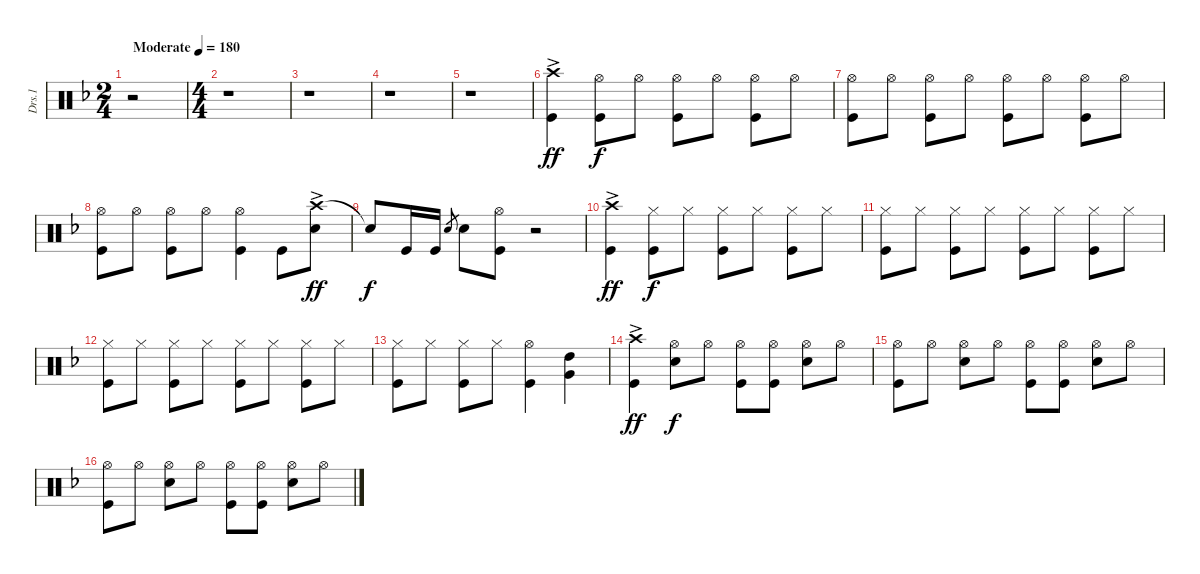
\track ("Drs.1" "Drs.1") {instrument percussion}
\staff {score}
\articulation defaults
\ts (2 4)
\tempo (180 "Moderate")
\clef neutral
\ks f
r.2{dy ff} |
\ts (4 4)
r.1 |
r.1 |
r.1 |
r.1 |
("Crash high (hit)"{ac} "Kick (hit)").4 ("Hi-Hat (open)" "Kick (hit)").8{dy f} "Hi-Hat (open)".8 ("Hi-Hat (open)" "Kick (hit)").8 "Hi-Hat (open)".8 ("Hi-Hat (open)" "Kick (hit)").8 "Hi-Hat (open)".8 |
("Hi-Hat (open)" "Kick (hit)").8 "Hi-Hat (open)".8 ("Hi-Hat (open)" "Kick (hit)").8 "Hi-Hat (open)".8 ("Hi-Hat (open)" "Kick (hit)").8 "Hi-Hat (open)".8 ("Hi-Hat (open)" "Kick (hit)").8 "Hi-Hat (open)".8 |
("Hi-Hat (open)" "Kick (hit)").8 "Hi-Hat (open)".8 ("Hi-Hat (open)" "Kick (hit)").8 "Hi-Hat (open)".8 ("Hi-Hat (open)" "Kick (hit)").4 "Kick (hit)".8 ("Crash high (hit)"{ac} "Snare (hit) 2").8{dy ff} |
"Snare (hit)"{t}.8{dy f} "Kick (hit)".16 "Kick (hit)".16 "Snare (hit) 2".8{gr} "Snare (hit) 2".8 ("Hi-Hat (open)" "Kick (hit)").8 r.2 |
("Crash high (hit)"{ac} "Kick (hit)").4{dy ff} ("Hi-Hat (closed)" "Kick (hit)").8{dy f} "Hi-Hat (closed)".8 ("Hi-Hat (closed)" "Kick (hit)").8 "Hi-Hat (closed)".8 ("Hi-Hat (closed)" "Kick (hit)").8 "Hi-Hat (closed)".8 |
("Hi-Hat (closed)" "Kick (hit)").8 "Hi-Hat (closed)".8 ("Hi-Hat (closed)" "Kick (hit)").8 "Hi-Hat (closed)".8 ("Hi-Hat (closed)" "Kick (hit)").8 "Hi-Hat (closed)".8 ("Hi-Hat (closed)" "Kick (hit)").8 "Hi-Hat (closed)".8 |
("Hi-Hat (closed)" "Kick (hit)").8 "Hi-Hat (closed)".8 ("Hi-Hat (closed)" "Kick (hit)").8 "Hi-Hat (closed)".8 ("Hi-Hat (closed)" "Kick (hit)").8 "Hi-Hat (closed)".8 ("Hi-Hat (closed)" "Kick (hit)").8 "Hi-Hat (closed)".8 |
("Hi-Hat (closed)" "Kick (hit)").8 "Hi-Hat (closed)".8 ("Hi-Hat (closed)" "Kick (hit)").8 "Hi-Hat (closed)".8 ("Hi-Hat (open)" "Kick (hit)").4 ("High Tom (hit)" "Very Low Tom (hit)").4 |
("Crash high (hit)"{ac} "Kick (hit)").4{dy ff} ("Hi-Hat (open)" "Snare (hit) 2").8{dy f} "Hi-Hat (open)".8 ("Hi-Hat (open)" "Kick (hit)").8 ("Hi-Hat (open)" "Kick (hit)").8 ("Hi-Hat (open)" "Snare (hit) 2").8 "Hi-Hat (open)".8 |
("Hi-Hat (open)" "Kick (hit)").8 "Hi-Hat (open)".8 ("Hi-Hat (open)" "Snare (hit) 2").8 "Hi-Hat (open)".8 ("Hi-Hat (open)" "Kick (hit)").8 ("Hi-Hat (open)" "Kick (hit)").8 ("Hi-Hat (open)" "Snare (hit) 2").8 "Hi-Hat (open)".8 |
("Hi-Hat (open)" "Kick (hit)").8 "Hi-Hat (open)".8 ("Hi-Hat (open)" "Snare (hit) 2").8 "Hi-Hat (open)".8 ("Hi-Hat (open)" "Kick (hit)").8 ("Hi-Hat (open)" "Kick (hit)").8 ("Hi-Hat (open)" "Snare (hit) 2").8 "Hi-Hat (open)".8
